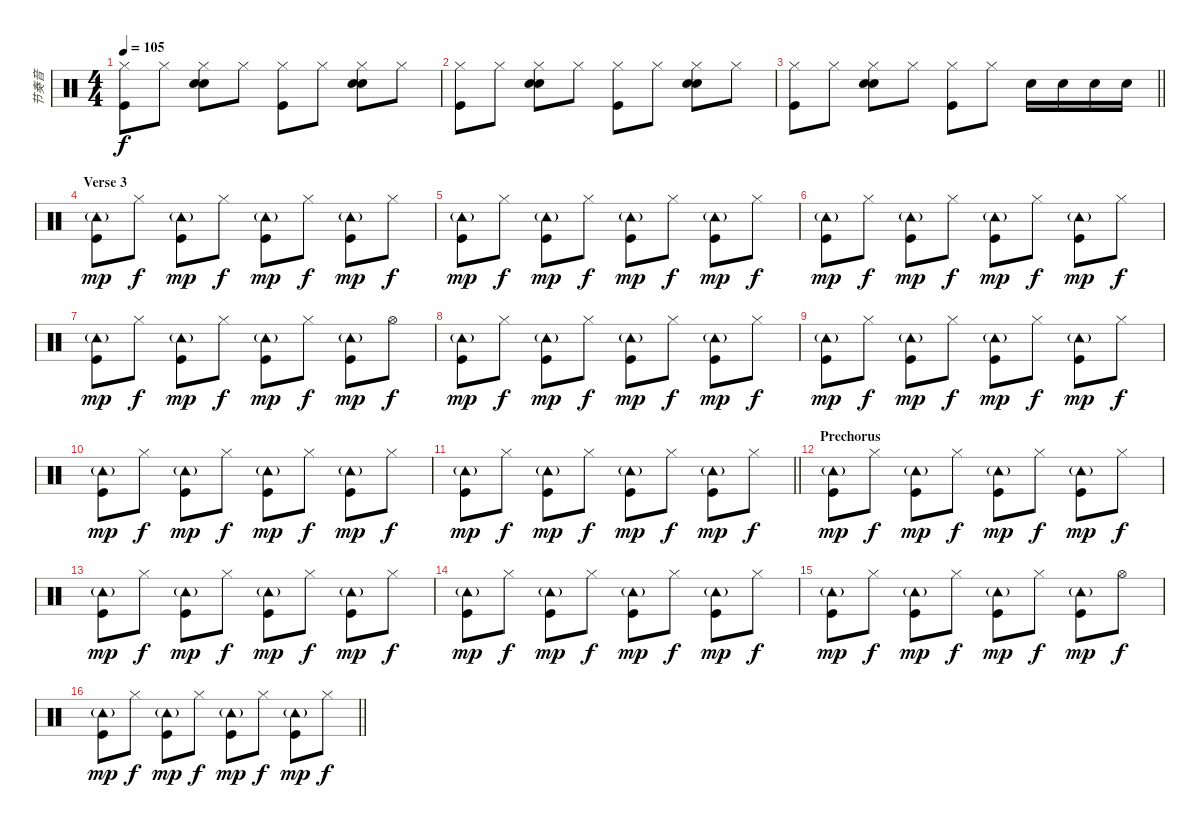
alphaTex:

\track ("节奏音" "节奏音") {instrument percussion}
\staff {score}
\articulation defaults
\ts (4 4)
\tempo 105
\clef neutral
\ks c
("Hi-Hat (closed)" "Kick (hit)").8{dy f} "Hi-Hat (closed)".8 ("Hi-Hat (closed)" "Hand Clap (hit)" "Snare (hit) 2").8 "Hi-Hat (closed)".8 ("Hi-Hat (closed)" "Kick (hit)").8 "Hi-Hat (closed)".8 ("Hi-Hat (closed)" "Hand Clap (hit)" "Snare (hit) 2").8 "Hi-Hat (closed)".8 |
("Hi-Hat (closed)" "Kick (hit)").8 "Hi-Hat (closed)".8 ("Hi-Hat (closed)" "Hand Clap (hit)" "Snare (hit) 2").8 "Hi-Hat (closed)".8 ("Hi-Hat (closed)" "Kick (hit)").8 "Hi-Hat (closed)".8 ("Hi-Hat (closed)" "Hand Clap (hit)" "Snare (hit) 2").8 "Hi-Hat (closed)".8 |
\barLineRight lightlight
("Hi-Hat (closed)" "Kick (hit)").8 "Hi-Hat (closed)".8 ("Hi-Hat (closed)" "Hand Clap (hit)" "Snare (hit) 2").8 "Hi-Hat (closed)".8 ("Hi-Hat (closed)" "Kick (hit)").8 "Hi-Hat (closed)".8 "Snare (hit) 2".16 "Snare (hit) 2".16 "Snare (hit) 2".16 "Snare (hit) 2".16 |
\section ("" "Verse 3")
("Tambourine (hit)"{g} "Kick (hit)").8{dy mp} "Hi-Hat (closed)".8{dy f} ("Tambourine (hit)"{g} "Kick (hit)").8{dy mp} "Hi-Hat (closed)".8{dy f} ("Tambourine (hit)"{g} "Kick (hit)").8{dy mp} "Hi-Hat (closed)".8{dy f} ("Tambourine (hit)"{g} "Kick (hit)").8{dy mp} "Hi-Hat (closed)".8{dy f} |
("Tambourine (hit)"{g} "Kick (hit)").8{dy mp} "Hi-Hat (closed)".8{dy f} ("Tambourine (hit)"{g} "Kick (hit)").8{dy mp} "Hi-Hat (closed)".8{dy f} ("Tambourine (hit)"{g} "Kick (hit)").8{dy mp} "Hi-Hat (closed)".8{dy f} ("Tambourine (hit)"{g} "Kick (hit)").8{dy mp} "Hi-Hat (closed)".8{dy f} |
("Tambourine (hit)"{g} "Kick (hit)").8{dy mp} "Hi-Hat (closed)".8{dy f} ("Tambourine (hit)"{g} "Kick (hit)").8{dy mp} "Hi-Hat (closed)".8{dy f} ("Tambourine (hit)"{g} "Kick (hit)").8{dy mp} "Hi-Hat (closed)".8{dy f} ("Tambourine (hit)"{g} "Kick (hit)").8{dy mp} "Hi-Hat (closed)".8{dy f} |
("Tambourine (hit)"{g} "Kick (hit)").8{dy mp} "Hi-Hat (closed)".8{dy f} ("Tambourine (hit)"{g} "Kick (hit)").8{dy mp} "Hi-Hat (closed)".8{dy f} ("Tambourine (hit)"{g} "Kick (hit)").8{dy mp} "Hi-Hat (closed)".8{dy f} ("Tambourine (hit)"{g} "Kick (hit)").8{dy mp} "Hi-Hat (open)".8{dy f} |
("Tambourine (hit)"{g} "Kick (hit)").8{dy mp} "Hi-Hat (closed)".8{dy f} ("Tambourine (hit)"{g} "Kick (hit)").8{dy mp} "Hi-Hat (closed)".8{dy f} ("Tambourine (hit)"{g} "Kick (hit)").8{dy mp} "Hi-Hat (closed)".8{dy f} ("Tambourine (hit)"{g} "Kick (hit)").8{dy mp} "Hi-Hat (closed)".8{dy f} |
("Tambourine (hit)"{g} "Kick (hit)").8{dy mp} "Hi-Hat (closed)".8{dy f} ("Tambourine (hit)"{g} "Kick (hit)").8{dy mp} "Hi-Hat (closed)".8{dy f} ("Tambourine (hit)"{g} "Kick (hit)").8{dy mp} "Hi-Hat (closed)".8{dy f} ("Tambourine (hit)"{g} "Kick (hit)").8{dy mp} "Hi-Hat (closed)".8{dy f} |
("Tambourine (hit)"{g} "Kick (hit)").8{dy mp} "Hi-Hat (closed)".8{dy f} ("Tambourine (hit)"{g} "Kick (hit)").8{dy mp} "Hi-Hat (closed)".8{dy f} ("Tambourine (hit)"{g} "Kick (hit)").8{dy mp} "Hi-Hat (closed)".8{dy f} ("Tambourine (hit)"{g} "Kick (hit)").8{dy mp} "Hi-Hat (closed)".8{dy f} |
\barLineRight lightlight
("Tambourine (hit)"{g} "Kick (hit)").8{dy mp} "Hi-Hat (closed)".8{dy f} ("Tambourine (hit)"{g} "Kick (hit)").8{dy mp} "Hi-Hat (closed)".8{dy f} ("Tambourine (hit)"{g} "Kick (hit)").8{dy mp} "Hi-Hat (closed)".8{dy f} ("Tambourine (hit)"{g} "Kick (hit)").8{dy mp} "Hi-Hat (closed)".8{dy f} |
\section ("" "Prechorus")
("Tambourine (hit)"{g} "Kick (hit)").8{dy mp} "Hi-Hat (closed)".8{dy f} ("Tambourine (hit)"{g} "Kick (hit)").8{dy mp} "Hi-Hat (closed)".8{dy f} ("Tambourine (hit)"{g} "Kick (hit)").8{dy mp} "Hi-Hat (closed)".8{dy f} ("Tambourine (hit)"{g} "Kick (hit)").8{dy mp} "Hi-Hat (closed)".8{dy f} |
("Tambourine (hit)"{g} "Kick (hit)").8{dy mp} "Hi-Hat (closed)".8{dy f} ("Tambourine (hit)"{g} "Kick (hit)").8{dy mp} "Hi-Hat (closed)".8{dy f} ("Tambourine (hit)"{g} "Kick (hit)").8{dy mp} "Hi-Hat (closed)".8{dy f} ("Tambourine (hit)"{g} "Kick (hit)").8{dy mp} "Hi-Hat (closed)".8{dy f} |
("Tambourine (hit)"{g} "Kick (hit)").8{dy mp} "Hi-Hat (closed)".8{dy f} ("Tambourine (hit)"{g} "Kick (hit)").8{dy mp} "Hi-Hat (closed)".8{dy f} ("Tambourine (hit)"{g} "Kick (hit)").8{dy mp} "Hi-Hat (closed)".8{dy f} ("Tambourine (hit)"{g} "Kick (hit)").8{dy mp} "Hi-Hat (closed)".8{dy f} |
("Tambourine (hit)"{g} "Kick (hit)").8{dy mp} "Hi-Hat (closed)".8{dy f} ("Tambourine (hit)"{g} "Kick (hit)").8{dy mp} "Hi-Hat (closed)".8{dy f} ("Tambourine (hit)"{g} "Kick (hit)").8{dy mp} "Hi-Hat (closed)".8{dy f} ("Tambourine (hit)"{g} "Kick (hit)").8{dy mp} "Hi-Hat (open)".8{dy f} |
\barLineRight lightlight
("Tambourine (hit)"{g} "Kick (hit)").8{dy mp} "Hi-Hat (closed)".8{dy f} ("Tambourine (hit)"{g} "Kick (hit)").8{dy mp} "Hi-Hat (closed)".8{dy f} ("Tambourine (hit)"{g} "Kick (hit)").8{dy mp} "Hi-Hat (closed)".8{dy f} ("Tambourine (hit)"{g} "Kick (hit)").8{dy mp} "Hi-Hat (closed)".8{dy f}
